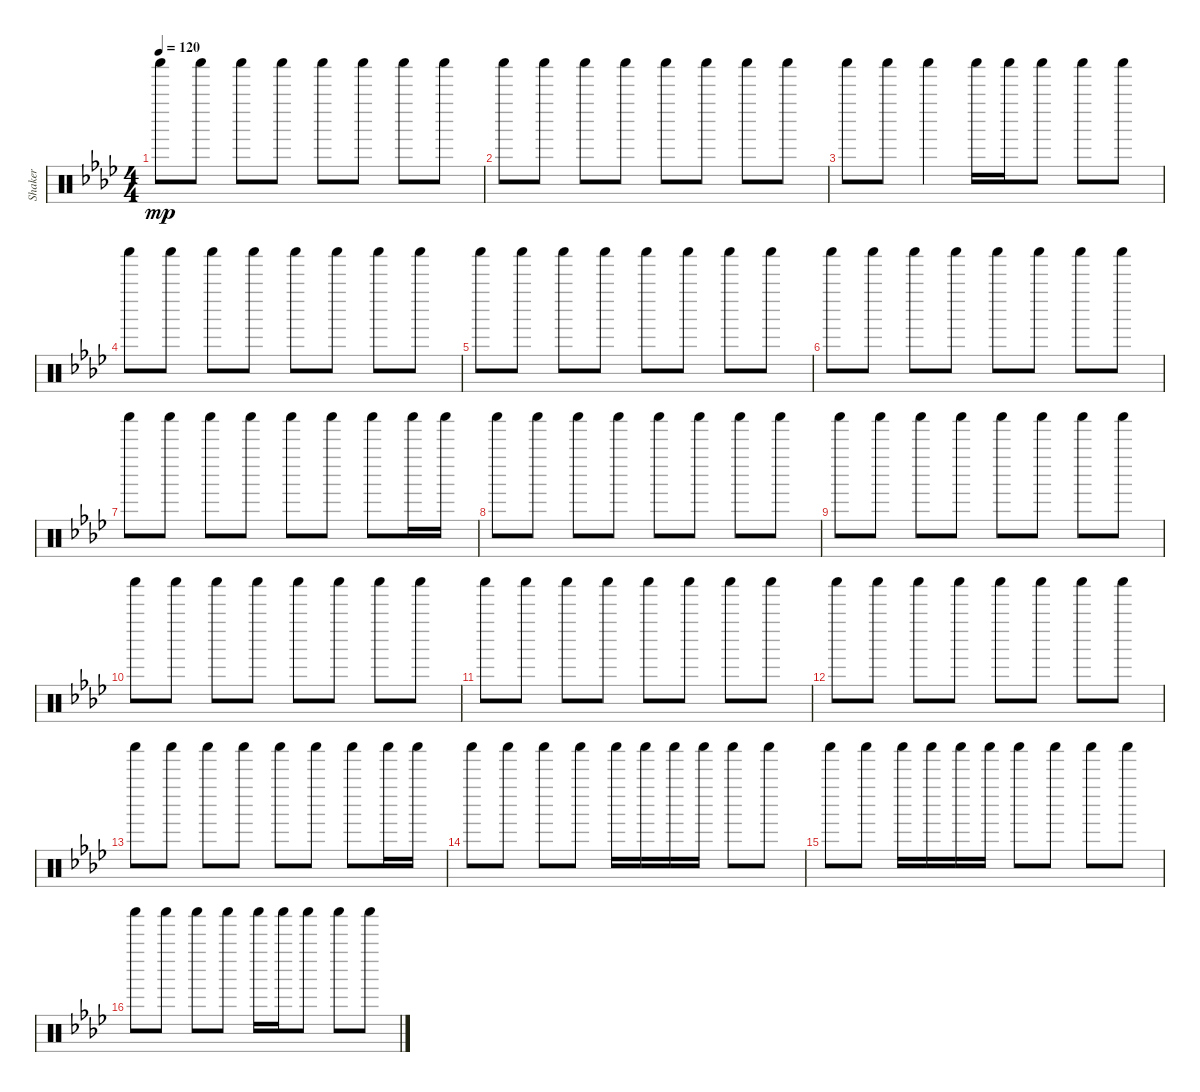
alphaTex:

\track ("Shaker" "Shaker") {instrument percussion}
\staff {score}
\articulation defaults
\ts (4 4)
\tempo 120
\clef neutral
\ks ab "Shaker (hit)".8{dy mp} "Shaker (hit)".8 "Shaker (hit)".8 "Shaker (hit)".8 "Shaker (hit)".8 "Shaker (hit)".8 "Shaker (hit)".8 "Shaker (hit)".8
|
"Shaker (hit)".8 "Shaker (hit)".8 "Shaker (hit)".8 "Shaker (hit)".8 "Shaker (hit)".8 "Shaker (hit)".8 "Shaker (hit)".8 "Shaker (hit)".8 |
"Shaker (hit)".8 "Shaker (hit)".8 "Shaker (hit)".4 "Shaker (hit)".16 "Shaker (hit)".16 "Shaker (hit)".8 "Shaker (hit)".8 "Shaker (hit)".8 |
"Shaker (hit)".8 "Shaker (hit)".8 "Shaker (hit)".8 "Shaker (hit)".8 "Shaker (hit)".8 "Shaker (hit)".8 "Shaker (hit)".8 "Shaker (hit)".8 |
"Shaker (hit)".8 "Shaker (hit)".8 "Shaker (hit)".8 "Shaker (hit)".8 "Shaker (hit)".8 "Shaker (hit)".8 "Shaker (hit)".8 "Shaker (hit)".8 |
"Shaker (hit)".8 "Shaker (hit)".8 "Shaker (hit)".8 "Shaker (hit)".8 "Shaker (hit)".8 "Shaker (hit)".8 "Shaker (hit)".8 "Shaker (hit)".8 |
"Shaker (hit)".8 "Shaker (hit)".8 "Shaker (hit)".8 "Shaker (hit)".8 "Shaker (hit)".8 "Shaker (hit)".8 "Shaker (hit)".8 "Shaker (hit)".16 "Shaker (hit)".16 |
"Shaker (hit)".8 "Shaker (hit)".8 "Shaker (hit)".8 "Shaker (hit)".8 "Shaker (hit)".8 "Shaker (hit)".8 "Shaker (hit)".8 "Shaker (hit)".8 |
"Shaker (hit)".8 "Shaker (hit)".8 "Shaker (hit)".8 "Shaker (hit)".8 "Shaker (hit)".8 "Shaker (hit)".8 "Shaker (hit)".8 "Shaker (hit)".8 |
"Shaker (hit)".8 "Shaker (hit)".8 "Shaker (hit)".8 "Shaker (hit)".8 "Shaker (hit)".8 "Shaker (hit)".8 "Shaker (hit)".8 "Shaker (hit)".8 |
"Shaker (hit)".8 "Shaker (hit)".8 "Shaker (hit)".8 "Shaker (hit)".8 "Shaker (hit)".8 "Shaker (hit)".8 "Shaker (hit)".8 "Shaker (hit)".8 |
"Shaker (hit)".8 "Shaker (hit)".8 "Shaker (hit)".8 "Shaker (hit)".8 "Shaker (hit)".8 "Shaker (hit)".8 "Shaker (hit)".8 "Shaker (hit)".8 |
"Shaker (hit)".8 "Shaker (hit)".8 "Shaker (hit)".8 "Shaker (hit)".8 "Shaker (hit)".8 "Shaker (hit)".8 "Shaker (hit)".8 "Shaker (hit)".16 "Shaker (hit)".16 |
"Shaker (hit)".8 "Shaker (hit)".8 "Shaker (hit)".8 "Shaker (hit)".8 "Shaker (hit)".16 "Shaker (hit)".16 "Shaker (hit)".16 "Shaker (hit)".16 "Shaker (hit)".8 "Shaker (hit)".8 |
"Shaker (hit)".8 "Shaker (hit)".8 "Shaker (hit)".16 "Shaker (hit)".16 "Shaker (hit)".16 "Shaker (hit)".16 "Shaker (hit)".8 "Shaker (hit)".8 "Shaker (hit)".8 "Shaker (hit)".8 |
"Shaker (hit)".8 "Shaker (hit)".8 "Shaker (hit)".8 "Shaker (hit)".8 "Shaker (hit)".16 "Shaker (hit)".16 "Shaker (hit)".8 "Shaker (hit)".8 "Shaker (hit)".8
